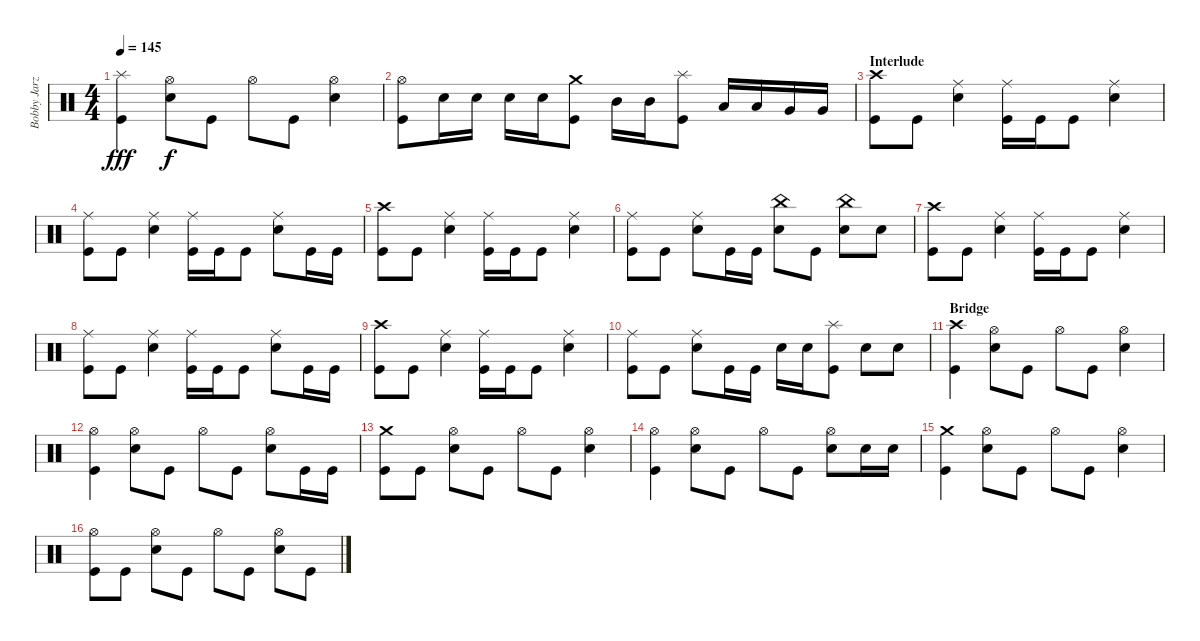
\track ("Bobby Jarzombek" "Bobby Jarz") {instrument percussion}
\staff {score}
\articulation defaults
\ts (4 4)
\tempo 145
\clef neutral
\ks c
("Splash (hit)" "Kick (hit)").4{dy fff} ("Hi-Hat (open)" "Electric Snare (hit)").8{dy f} "Kick (hit)".8 "Hi-Hat (open)".8 "Kick (hit)".8 ("Hi-Hat (open)" "Electric Snare (hit)").4 |
("Hi-Hat (open)" "Kick (hit)").8 "Electric Snare (hit)".16 "Electric Snare (hit)".16 "Electric Snare (hit)".16 "Electric Snare (hit)".16 ("Crash medium (hit)" "Kick (hit)").8 "Mid Tom (hit)".16 "Mid Tom (hit)".16 ("Splash (hit)" "Kick (hit)").8 "Low Tom (hit)".16 "Low Tom (hit)".16 "Very Low Tom (hit)".16 "Very Low Tom (hit)".16 |
\section ("" "Interlude")
("Crash high (hit)" "Kick (hit)").8 "Kick (hit)".8 ("Ride (middle)" "Electric Snare (hit)").4 ("Ride (middle)" "Kick (hit)").16 "Kick (hit)".16 "Kick (hit)".8 ("Ride (middle)" "Electric Snare (hit)").4 |
("Ride (middle)" "Kick (hit)").8 "Kick (hit)".8 ("Ride (middle)" "Electric Snare (hit)").4 ("Ride (middle)" "Kick (hit)").16 "Kick (hit)".16 "Kick (hit)".8 ("Ride (middle)" "Electric Snare (hit)").8 "Kick (hit)".16 "Kick (hit)".16 |
("Crash high (hit)" "Kick (hit)").8 "Kick (hit)".8 ("Ride (middle)" "Electric Snare (hit)").4 ("Ride (middle)" "Kick (hit)").16 "Kick (hit)".16 "Kick (hit)".8 ("Ride (middle)" "Electric Snare (hit)").4 |
("Ride (middle)" "Kick (hit)").8 "Kick (hit)".8 ("Ride (middle)" "Electric Snare (hit)").8 "Kick (hit)".16 "Kick (hit)".16 ("China (hit)" "Electric Snare (hit)").8 "Kick (hit)".8 ("China (hit)" "Electric Snare (hit)").8 "Electric Snare (hit)".8 |
("Crash high (hit)" "Kick (hit)").8 "Kick (hit)".8 ("Ride (middle)" "Electric Snare (hit)").4 ("Ride (middle)" "Kick (hit)").16 "Kick (hit)".16 "Kick (hit)".8 ("Ride (middle)" "Electric Snare (hit)").4 |
("Ride (middle)" "Kick (hit)").8 "Kick (hit)".8 ("Ride (middle)" "Electric Snare (hit)").4 ("Ride (middle)" "Kick (hit)").16 "Kick (hit)".16 "Kick (hit)".8 ("Ride (middle)" "Electric Snare (hit)").8 "Kick (hit)".16 "Kick (hit)".16 |
("Crash high (hit)" "Kick (hit)").8 "Kick (hit)".8 ("Ride (middle)" "Electric Snare (hit)").4 ("Ride (middle)" "Kick (hit)").16 "Kick (hit)".16 "Kick (hit)".8 ("Ride (middle)" "Electric Snare (hit)").4 |
("Ride (middle)" "Kick (hit)").8 "Kick (hit)".8 ("Ride (middle)" "Electric Snare (hit)").8 "Kick (hit)".16 "Kick (hit)".16 "Electric Snare (hit)".16 "Electric Snare (hit)".16 ("Splash (hit)" "Kick (hit)").8 "Electric Snare (hit)".8 "Electric Snare (hit)".8 |
\section ("" "Bridge")
("Crash high (hit)" "Kick (hit)").4 ("Hi-Hat (open)" "Electric Snare (hit)").8 "Kick (hit)".8 "Hi-Hat (open)".8 "Kick (hit)".8 ("Hi-Hat (open)" "Electric Snare (hit)").4 |
("Hi-Hat (open)" "Kick (hit)").4 ("Hi-Hat (open)" "Electric Snare (hit)").8 "Kick (hit)".8 "Hi-Hat (open)".8 "Kick (hit)".8 ("Hi-Hat (open)" "Electric Snare (hit)").8 "Kick (hit)".16 "Kick (hit)".16 |
("Crash medium (hit)" "Kick (hit)").8 "Kick (hit)".8 ("Hi-Hat (open)" "Electric Snare (hit)").8 "Kick (hit)".8 "Hi-Hat (open)".8 "Kick (hit)".8 ("Hi-Hat (open)" "Electric Snare (hit)").4 |
("Hi-Hat (open)" "Kick (hit)").4 ("Hi-Hat (open)" "Electric Snare (hit)").8 "Kick (hit)".8 "Hi-Hat (open)".8 "Kick (hit)".8 ("Hi-Hat (open)" "Electric Snare (hit)").8 "Electric Snare (hit)".16 "Electric Snare (hit)".16 |
("Crash medium (hit)" "Kick (hit)").4 ("Hi-Hat (open)" "Electric Snare (hit)").8 "Kick (hit)".8 "Hi-Hat (open)".8 "Kick (hit)".8 ("Hi-Hat (open)" "Electric Snare (hit)").4 |
("Hi-Hat (open)" "Kick (hit)").8 "Kick (hit)".8 ("Hi-Hat (open)" "Electric Snare (hit)").8 "Kick (hit)".8 "Hi-Hat (open)".8 "Kick (hit)".8 ("Hi-Hat (open)" "Electric Snare (hit)").8 "Kick (hit)".8
